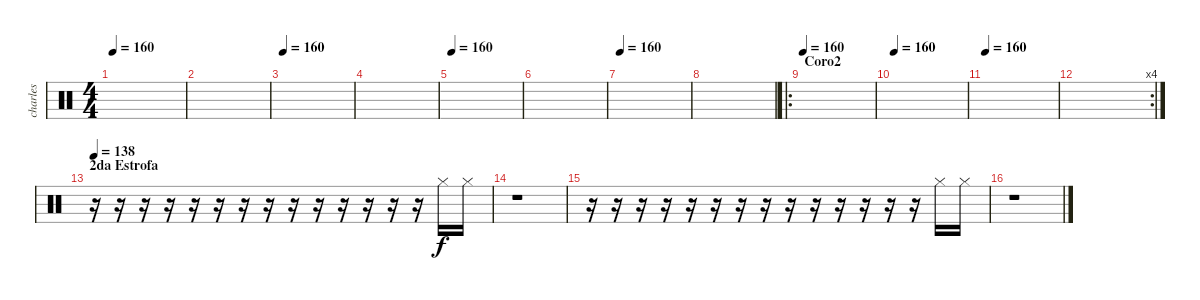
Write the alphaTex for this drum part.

\track ("charles" "charles") {instrument percussion}
\staff {score}
\articulation defaults
\ts (4 4)
\tempo 160
\clef neutral
\ks c
|
|
\tempo 160
|
|
\tempo 160
|
|
\tempo 160
|
|
\ro
\section ("" "Coro2")
\tempo 160
|
\tempo 160
|
\tempo 160
|
\rc 4
|
\section ("" "2da Estrofa")
\tempo 138
r.16 r.16 r.16 r.16 r.16 r.16 r.16 r.16 r.16 r.16 r.16 r.16 r.16 r.16 "Hi-Hat (closed)".16 "Hi-Hat (closed)".16 |
r.1 |
r.16 r.16 r.16 r.16 r.16 r.16 r.16 r.16 r.16 r.16 r.16 r.16 r.16 r.16 "Hi-Hat (closed)".16 "Hi-Hat (closed)".16 |
r.1
